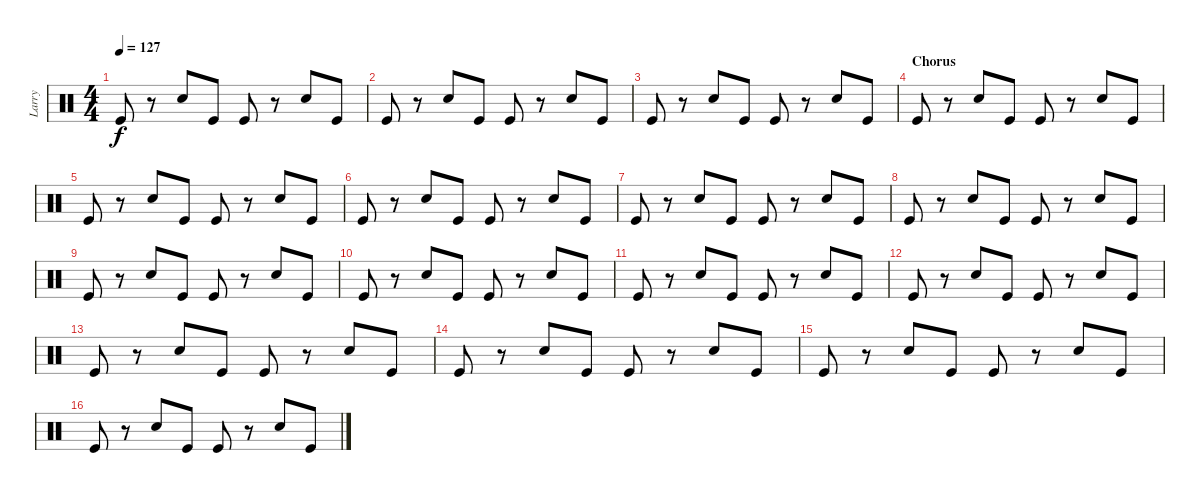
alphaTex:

\track ("Larry" "Larry") {instrument percussion}
\staff {score}
\articulation defaults
\ts (4 4)
\tempo 127
\clef neutral
\ks c "Kick (hit)".8{dy f}
r.8 "Snare (hit) 2".8 "Kick (hit)".8 "Kick (hit)".8 r.8 "Snare (hit) 2".8 "Kick (hit)".8 |
"Kick (hit)".8 r.8 "Snare (hit) 2".8 "Kick (hit)".8 "Kick (hit)".8 r.8 "Snare (hit) 2".8 "Kick (hit)".8 |
"Kick (hit)".8 r.8 "Snare (hit) 2".8 "Kick (hit)".8 "Kick (hit)".8 r.8 "Snare (hit) 2".8 "Kick (hit)".8 |
\section ("" "Chorus")
"Kick (hit)".8 r.8 "Snare (hit) 2".8 "Kick (hit)".8 "Kick (hit)".8 r.8 "Snare (hit) 2".8 "Kick (hit)".8 |
"Kick (hit)".8 r.8 "Snare (hit) 2".8 "Kick (hit)".8 "Kick (hit)".8 r.8 "Snare (hit) 2".8 "Kick (hit)".8 |
"Kick (hit)".8 r.8 "Snare (hit) 2".8 "Kick (hit)".8 "Kick (hit)".8 r.8 "Snare (hit) 2".8 "Kick (hit)".8 |
"Kick (hit)".8 r.8 "Snare (hit) 2".8 "Kick (hit)".8 "Kick (hit)".8 r.8 "Snare (hit) 2".8 "Kick (hit)".8 |
"Kick (hit)".8 r.8 "Snare (hit) 2".8 "Kick (hit)".8 "Kick (hit)".8 r.8 "Snare (hit) 2".8 "Kick (hit)".8 |
"Kick (hit)".8 r.8 "Snare (hit) 2".8 "Kick (hit)".8 "Kick (hit)".8 r.8 "Snare (hit) 2".8 "Kick (hit)".8 |
"Kick (hit)".8 r.8 "Snare (hit) 2".8 "Kick (hit)".8 "Kick (hit)".8 r.8 "Snare (hit) 2".8 "Kick (hit)".8 |
"Kick (hit)".8 r.8 "Snare (hit) 2".8 "Kick (hit)".8 "Kick (hit)".8 r.8 "Snare (hit) 2".8 "Kick (hit)".8 |
"Kick (hit)".8 r.8 "Snare (hit) 2".8 "Kick (hit)".8 "Kick (hit)".8 r.8 "Snare (hit) 2".8 "Kick (hit)".8 |
"Kick (hit)".8 r.8 "Snare (hit) 2".8 "Kick (hit)".8 "Kick (hit)".8 r.8 "Snare (hit) 2".8 "Kick (hit)".8 |
"Kick (hit)".8 r.8 "Snare (hit) 2".8 "Kick (hit)".8 "Kick (hit)".8 r.8 "Snare (hit) 2".8 "Kick (hit)".8 |
"Kick (hit)".8 r.8 "Snare (hit) 2".8 "Kick (hit)".8 "Kick (hit)".8 r.8 "Snare (hit) 2".8 "Kick (hit)".8 |
"Kick (hit)".8 r.8 "Snare (hit) 2".8 "Kick (hit)".8 "Kick (hit)".8 r.8 "Snare (hit) 2".8 "Kick (hit)".8
